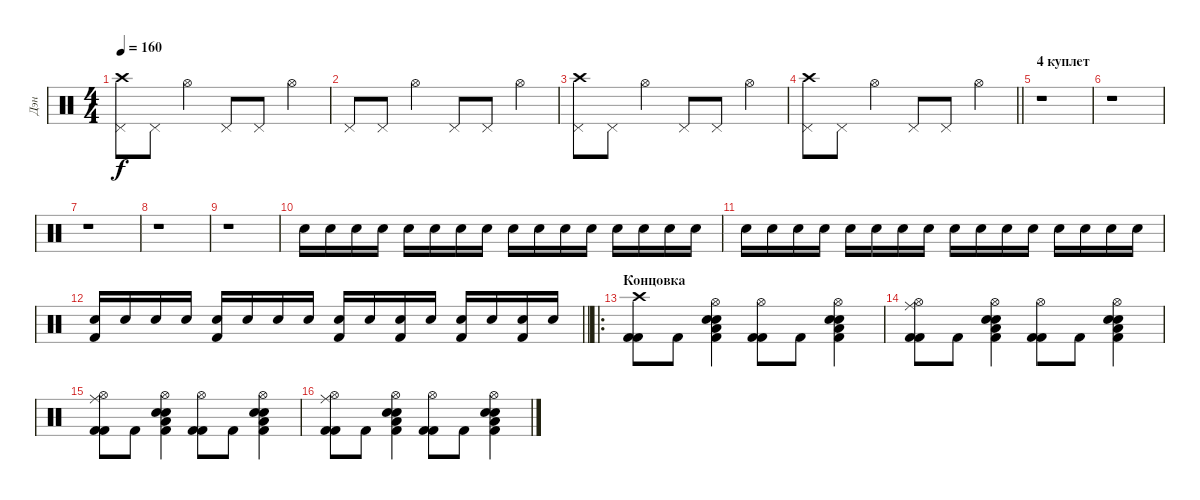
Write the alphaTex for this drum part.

\track ("Дэн" "Дэн") {instrument percussion}
\staff {score}
\articulation defaults
\ts (4 4)
\tempo 160
\clef neutral
\ks c
("Crash high (hit)" "Pedal Hi-Hat (hit)").8{dy f} "Pedal Hi-Hat (hit)".8 "Hi-Hat (open)".4 "Pedal Hi-Hat (hit)".8 "Pedal Hi-Hat (hit)".8 "Hi-Hat (open)".4 |
"Pedal Hi-Hat (hit)".8 "Pedal Hi-Hat (hit)".8 "Hi-Hat (open)".4 "Pedal Hi-Hat (hit)".8 "Pedal Hi-Hat (hit)".8 "Hi-Hat (open)".4 |
("Crash high (hit)" "Pedal Hi-Hat (hit)").8 "Pedal Hi-Hat (hit)".8 "Hi-Hat (open)".4 "Pedal Hi-Hat (hit)".8 "Pedal Hi-Hat (hit)".8 "Hi-Hat (open)".4 |
\barLineRight lightlight
("Crash high (hit)" "Pedal Hi-Hat (hit)").8 "Pedal Hi-Hat (hit)".8 "Hi-Hat (open)".4 "Pedal Hi-Hat (hit)".8 "Pedal Hi-Hat (hit)".8 "Hi-Hat (open)".4 |
\section ("" "4 куплет")
r.1 |
r.1 |
r.1 |
r.1 |
r.1 |
"Electric Snare (hit)".16{volume 0} "Electric Snare (hit)".16{volume 14} "Electric Snare (hit)".16 "Electric Snare (hit)".16 "Electric Snare (hit)".16 "Electric Snare (hit)".16 "Electric Snare (hit)".16 "Electric Snare (hit)".16 "Electric Snare (hit)".16 "Electric Snare (hit)".16 "Electric Snare (hit)".16 "Electric Snare (hit)".16 "Electric Snare (hit)".16 "Electric Snare (hit)".16 "Electric Snare (hit)".16 "Electric Snare (hit)".16 |
"Electric Snare (hit)".16 "Electric Snare (hit)".16 "Electric Snare (hit)".16 "Electric Snare (hit)".16 "Electric Snare (hit)".16 "Electric Snare (hit)".16 "Electric Snare (hit)".16 "Electric Snare (hit)".16 "Electric Snare (hit)".16 "Electric Snare (hit)".16 "Electric Snare (hit)".16 "Electric Snare (hit)".16 "Electric Snare (hit)".16 "Electric Snare (hit)".16 "Electric Snare (hit)".16 "Electric Snare (hit)".16 |
\barLineRight lightlight
("Kick (hit) 2" "Electric Snare (hit)").16 "Electric Snare (hit)".16 "Electric Snare (hit)".16 "Electric Snare (hit)".16 ("Kick (hit) 2" "Electric Snare (hit)").16 "Electric Snare (hit)".16 "Electric Snare (hit)".16 "Electric Snare (hit)".16 ("Kick (hit) 2" "Electric Snare (hit)").16 "Electric Snare (hit)".16 ("Kick (hit) 2" "Electric Snare (hit)").16 "Electric Snare (hit)".16 ("Kick (hit) 2" "Electric Snare (hit)").16 "Electric Snare (hit)".16 ("Kick (hit) 2" "Electric Snare (hit)").16 "Electric Snare (hit)".16 |
\ro
\section ("" "Концовка")
("Crash high (hit)" "Kick (hit) 2" "Kick (hit) 2").8 "Kick (hit) 2".8 ("Hi-Hat (open)" "Low Tom (hit)" "Electric Snare (hit)" "Kick (hit) 2" "Electric Snare (hit)").4 ("Hi-Hat (open)" "Kick (hit) 2" "Kick (hit) 2").8 "Kick (hit) 2".8 ("Hi-Hat (open)" "Low Tom (hit)" "Electric Snare (hit)" "Kick (hit) 2" "Electric Snare (hit)").4 |
("Ride (middle)" "Hi-Hat (open)" "Kick (hit) 2" "Kick (hit) 2").8 "Kick (hit) 2".8 ("Hi-Hat (open)" "Low Tom (hit)" "Electric Snare (hit)" "Kick (hit) 2" "Electric Snare (hit)").4 ("Hi-Hat (open)" "Kick (hit) 2" "Kick (hit) 2").8 "Kick (hit) 2".8 ("Hi-Hat (open)" "Low Tom (hit)" "Electric Snare (hit)" "Kick (hit) 2" "Electric Snare (hit)").4 |
("Ride (middle)" "Hi-Hat (open)" "Kick (hit) 2" "Kick (hit) 2").8 "Kick (hit) 2".8 ("Hi-Hat (open)" "Low Tom (hit)" "Electric Snare (hit)" "Kick (hit) 2" "Electric Snare (hit)").4 ("Hi-Hat (open)" "Kick (hit) 2" "Kick (hit) 2").8 "Kick (hit) 2".8 ("Hi-Hat (open)" "Low Tom (hit)" "Electric Snare (hit)" "Kick (hit) 2" "Electric Snare (hit)").4 |
("Ride (middle)" "Hi-Hat (open)" "Kick (hit) 2" "Kick (hit) 2").8 "Kick (hit) 2".8 ("Hi-Hat (open)" "Low Tom (hit)" "Electric Snare (hit)" "Kick (hit) 2" "Electric Snare (hit)").4 ("Hi-Hat (open)" "Kick (hit) 2" "Kick (hit) 2").8 "Kick (hit) 2".8 ("Hi-Hat (open)" "Low Tom (hit)" "Electric Snare (hit)" "Kick (hit) 2" "Electric Snare (hit)").4
